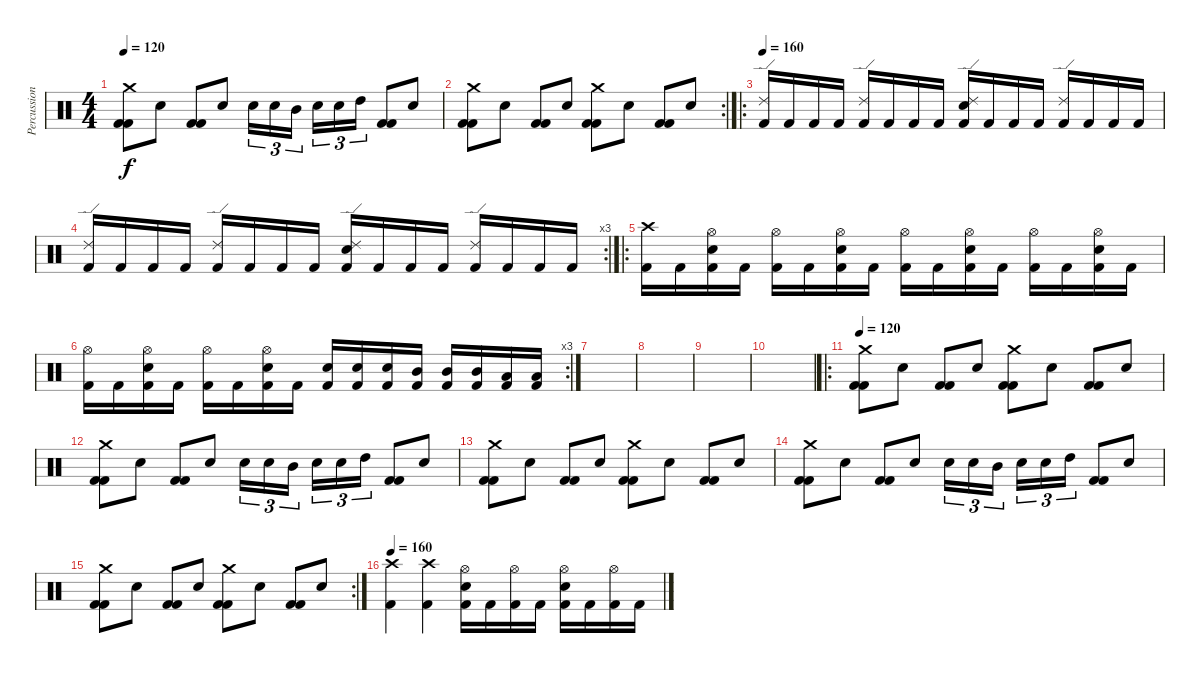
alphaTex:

\track ("Percussion" "Percussion") {instrument percussion}
\staff {score}
\articulation defaults
\ts (4 4)
\tempo 120
\clef neutral
\ks c
("Crash medium (hit)" "Kick (hit) 2" "Kick (hit) 2").8{dy f} "Snare (hit) 2".8 ("Kick (hit) 2" "Kick (hit) 2").8 "Snare (hit) 2".8 "Snare (hit) 2".16{tu (3 2)} "Snare (hit) 2".16{tu (3 2)} "Mid Tom (hit)".16{tu (3 2)} "Snare (hit) 2".16{tu (3 2)} "Snare (hit) 2".16{tu (3 2)} "High Tom (hit)".16{tu (3 2)} ("Kick (hit) 2" "Kick (hit) 2").8 "Snare (hit) 2".8 |
\rc 2
("Crash medium (hit)" "Kick (hit) 2" "Kick (hit) 2").8 "Snare (hit) 2".8 ("Kick (hit) 2" "Kick (hit) 2").8 "Snare (hit) 2".8 ("Crash medium (hit)" "Kick (hit) 2" "Kick (hit) 2").8 "Snare (hit) 2".8 ("Kick (hit) 2" "Kick (hit) 2").8 "Snare (hit) 2".8 |
\ro
\tempo 160
("Ride (edge) 2" "Kick (hit) 2").16 "Kick (hit) 2".16 "Kick (hit) 2".16 "Kick (hit) 2".16 ("Ride (edge) 2" "Kick (hit) 2").16 "Kick (hit) 2".16 "Kick (hit) 2".16 "Kick (hit) 2".16 ("Ride (edge) 2" "Electric Snare (hit)" "Kick (hit) 2").16 "Kick (hit) 2".16 "Kick (hit) 2".16 "Kick (hit) 2".16 ("Ride (edge) 2" "Kick (hit) 2").16 "Kick (hit) 2".16 "Kick (hit) 2".16 "Kick (hit) 2".16 |
\rc 3
("Ride (edge) 2" "Kick (hit) 2").16 "Kick (hit) 2".16 "Kick (hit) 2".16 "Kick (hit) 2".16 ("Ride (edge) 2" "Kick (hit) 2").16 "Kick (hit) 2".16 "Kick (hit) 2".16 "Kick (hit) 2".16 ("Ride (edge) 2" "Electric Snare (hit)" "Kick (hit) 2").16 "Kick (hit) 2".16 "Kick (hit) 2".16 "Kick (hit) 2".16 ("Ride (edge) 2" "Kick (hit) 2").16 "Kick (hit) 2".16 "Kick (hit) 2".16 "Kick (hit) 2".16 |
\ro
("Crash high (hit)" "Kick (hit) 2").16 "Kick (hit) 2".16 ("Hi-Hat (open)" "Snare (hit) 2" "Kick (hit) 2").16 "Kick (hit) 2".16 ("Hi-Hat (open)" "Kick (hit) 2").16 "Kick (hit) 2".16 ("Hi-Hat (open)" "Snare (hit) 2" "Kick (hit) 2").16 "Kick (hit) 2".16 ("Hi-Hat (open)" "Kick (hit) 2").16 "Kick (hit) 2".16 ("Hi-Hat (open)" "Snare (hit) 2" "Kick (hit) 2").16 "Kick (hit) 2".16 ("Hi-Hat (open)" "Kick (hit) 2").16 "Kick (hit) 2".16 ("Hi-Hat (open)" "Snare (hit) 2" "Kick (hit) 2").16 "Kick (hit) 2".16 |
\rc 3
("Hi-Hat (open)" "Kick (hit) 2").16 "Kick (hit) 2".16 ("Hi-Hat (open)" "Snare (hit) 2" "Kick (hit) 2").16 "Kick (hit) 2".16 ("Hi-Hat (open)" "Kick (hit) 2").16 "Kick (hit) 2".16 ("Hi-Hat (open)" "Snare (hit) 2" "Kick (hit) 2").16 "Kick (hit) 2".16 ("Snare (hit) 2" "Kick (hit) 2").16 ("Snare (hit) 2" "Kick (hit) 2").16 ("Snare (hit) 2" "Kick (hit) 2").16 ("Mid Tom (hit)" "Kick (hit) 2").16 ("Mid Tom (hit)" "Kick (hit) 2").16 ("Mid Tom (hit)" "Kick (hit) 2").16 ("Low Tom (hit)" "Kick (hit) 2").16 ("Low Tom (hit)" "Kick (hit) 2").16 |
|
|
|
|
\ro
\tempo 120
("Crash medium (hit)" "Kick (hit) 2" "Kick (hit) 2").8 "Snare (hit) 2".8 ("Kick (hit) 2" "Kick (hit) 2").8 "Snare (hit) 2".8 ("Crash medium (hit)" "Kick (hit) 2" "Kick (hit) 2").8 "Snare (hit) 2".8 ("Kick (hit) 2" "Kick (hit) 2").8 "Snare (hit) 2".8 |
("Crash medium (hit)" "Kick (hit) 2" "Kick (hit) 2").8 "Snare (hit) 2".8 ("Kick (hit) 2" "Kick (hit) 2").8 "Snare (hit) 2".8 "Snare (hit) 2".16{tu (3 2)} "Snare (hit) 2".16{tu (3 2)} "Mid Tom (hit)".16{tu (3 2)} "Snare (hit) 2".16{tu (3 2)} "Snare (hit) 2".16{tu (3 2)} "High Tom (hit)".16{tu (3 2)} ("Kick (hit) 2" "Kick (hit) 2").8 "Snare (hit) 2".8 |
("Crash medium (hit)" "Kick (hit) 2" "Kick (hit) 2").8 "Snare (hit) 2".8 ("Kick (hit) 2" "Kick (hit) 2").8 "Snare (hit) 2".8 ("Crash medium (hit)" "Kick (hit) 2" "Kick (hit) 2").8 "Snare (hit) 2".8 ("Kick (hit) 2" "Kick (hit) 2").8 "Snare (hit) 2".8 |
("Crash medium (hit)" "Kick (hit) 2" "Kick (hit) 2").8 "Snare (hit) 2".8 ("Kick (hit) 2" "Kick (hit) 2").8 "Snare (hit) 2".8 "Snare (hit) 2".16{tu (3 2)} "Snare (hit) 2".16{tu (3 2)} "Mid Tom (hit)".16{tu (3 2)} "Snare (hit) 2".16{tu (3 2)} "Snare (hit) 2".16{tu (3 2)} "High Tom (hit)".16{tu (3 2)} ("Kick (hit) 2" "Kick (hit) 2").8 "Snare (hit) 2".8 |
\rc 2
("Crash medium (hit)" "Kick (hit) 2" "Kick (hit) 2").8 "Snare (hit) 2".8 ("Kick (hit) 2" "Kick (hit) 2").8 "Snare (hit) 2".8 ("Crash medium (hit)" "Kick (hit) 2" "Kick (hit) 2").8 "Snare (hit) 2".8 ("Kick (hit) 2" "Kick (hit) 2").8 "Snare (hit) 2".8 |
\tempo 160
("Crash high (hit)" "Kick (hit) 2").4 ("Crash high (hit)" "Kick (hit) 2").4 ("Hi-Hat (open)" "Snare (hit) 2" "Kick (hit) 2").16 "Kick (hit) 2".16 ("Hi-Hat (open)" "Kick (hit) 2").16 "Kick (hit) 2".16 ("Hi-Hat (open)" "Snare (hit) 2" "Kick (hit) 2").16 "Kick (hit) 2".16 ("Hi-Hat (open)" "Kick (hit) 2").16 "Kick (hit) 2".16
